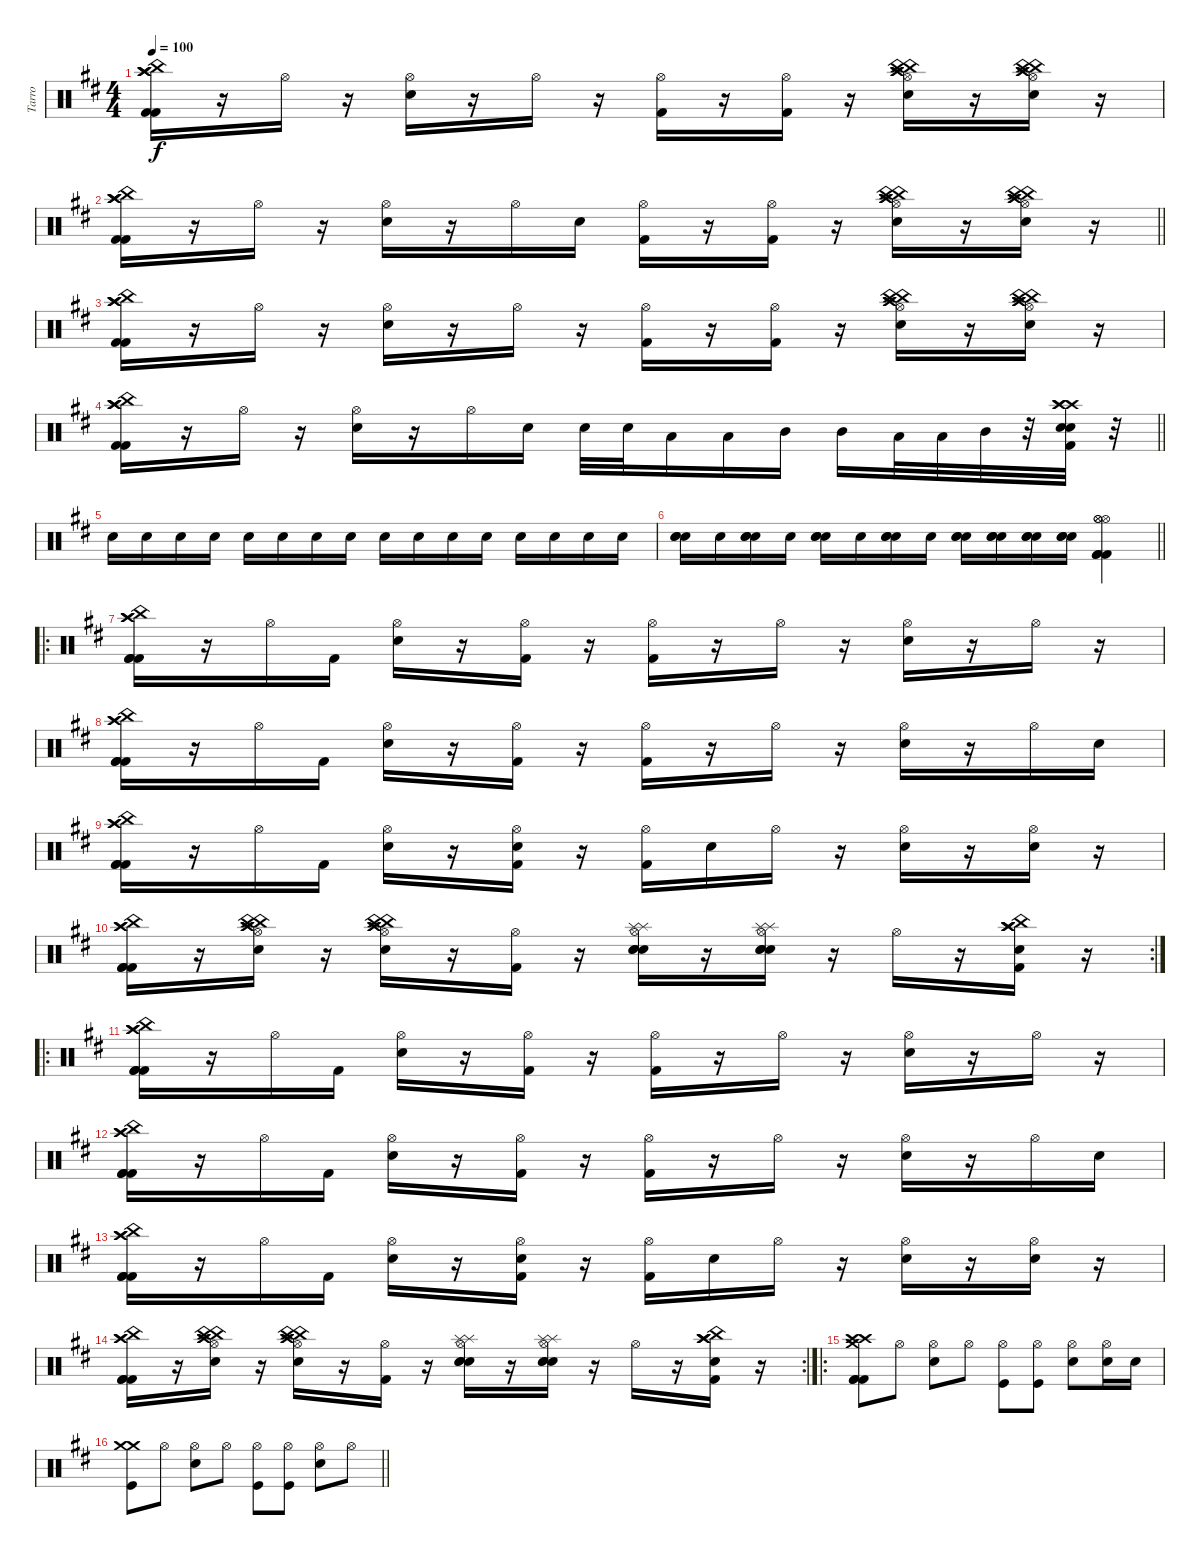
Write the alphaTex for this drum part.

\track ("Tarro" "Tarro") {instrument percussion}
\staff {score}
\articulation defaults
\ts (4 4)
\tempo 100
\clef neutral
\ks d
("Crash high (hit)" "China (hit)" "Crash high (hit)" "Crash high (hit)" "Kick (hit) 2" "Kick (hit) 2").16{dy f} r.16 "Hi-Hat (open)".16 r.16 ("Hi-Hat (open)" "Snare (hit) 2").16 r.16 "Hi-Hat (open)".16 r.16 ("Hi-Hat (open)" "Kick (hit) 2").16 r.16 ("Hi-Hat (open)" "Kick (hit) 2").16 r.16 ("Hi-Hat (open)" "Snare (hit) 2" "Crash high (hit)" "Crash high (hit)" "China (hit)" "China (hit)").16 r.16 ("Hi-Hat (open)" "Snare (hit) 2" "Crash high (hit)" "Crash high (hit)" "China (hit)" "China (hit)").16 r.16 |
\barLineRight lightlight
("Crash high (hit)" "China (hit)" "Crash high (hit)" "Crash high (hit)" "Kick (hit) 2" "Kick (hit) 2").16 r.16 "Hi-Hat (open)".16 r.16 ("Hi-Hat (open)" "Snare (hit) 2").16 r.16 "Hi-Hat (open)".16 "Snare (hit) 2".16 ("Hi-Hat (open)" "Kick (hit) 2").16 r.16 ("Hi-Hat (open)" "Kick (hit) 2").16 r.16 ("Hi-Hat (open)" "Snare (hit) 2" "Crash high (hit)" "Crash high (hit)" "China (hit)" "China (hit)").16 r.16 ("Hi-Hat (open)" "Snare (hit) 2" "Crash high (hit)" "Crash high (hit)" "China (hit)" "China (hit)").16 r.16 |
("Crash high (hit)" "China (hit)" "Crash high (hit)" "Crash high (hit)" "Kick (hit) 2" "Kick (hit) 2").16 r.16 "Hi-Hat (open)".16 r.16 ("Hi-Hat (open)" "Snare (hit) 2").16 r.16 "Hi-Hat (open)".16 r.16 ("Hi-Hat (open)" "Kick (hit) 2").16 r.16 ("Hi-Hat (open)" "Kick (hit) 2").16 r.16 ("Hi-Hat (open)" "Snare (hit) 2" "Crash high (hit)" "Crash high (hit)" "China (hit)" "China (hit)").16 r.16 ("Hi-Hat (open)" "Snare (hit) 2" "Crash high (hit)" "Crash high (hit)" "China (hit)" "China (hit)").16 r.16 |
\barLineRight lightlight
("Crash high (hit)" "China (hit)" "Crash high (hit)" "Crash high (hit)" "Kick (hit) 2" "Kick (hit) 2").16 r.16 "Hi-Hat (open)".16 r.16 ("Hi-Hat (open)" "Snare (hit) 2").16 r.16 "Hi-Hat (open)".16 "Snare (hit) 2".16 "Snare (hit) 2".32 "Snare (hit) 2".32 "Low Floor Tom (hit)".16 "Low Floor Tom (hit)".16 "Mid Tom (hit)".16 "Mid Tom (hit)".16 "Low Floor Tom (hit)".32 "Low Floor Tom (hit)".32 "Mid Tom (hit)".32 r.32 ("Snare (hit) 2" "Crash high (hit)" "Crash high (hit)" "Snare (hit) 2" "Kick (hit) 2" "Crash high (hit)").32 r.32 |
"Snare (hit) 2".16{balance 16} "Snare (hit) 2".16 "Snare (hit) 2".16 "Snare (hit) 2".16 "Snare (hit) 2".16 "Snare (hit) 2".16 "Snare (hit) 2".16 "Snare (hit) 2".16 "Snare (hit) 2".16 "Snare (hit) 2".16 "Snare (hit) 2".16 "Snare (hit) 2".16 "Snare (hit) 2".16 "Snare (hit) 2".16 "Snare (hit) 2".16 "Snare (hit) 2".16 |
\barLineRight lightlight
("Snare (hit) 2" "Snare (hit) 2" "Snare (hit) 2").16 "Snare (hit) 2".16 ("Snare (hit) 2" "Snare (hit) 2" "Snare (hit) 2").16 "Snare (hit) 2".16 ("Snare (hit) 2" "Snare (hit) 2" "Snare (hit) 2").16 "Snare (hit) 2".16 ("Snare (hit) 2" "Snare (hit) 2" "Snare (hit) 2").16 "Snare (hit) 2".16 ("Snare (hit) 2" "Snare (hit) 2" "Snare (hit) 2").16 ("Snare (hit) 2" "Snare (hit) 2" "Snare (hit) 2").16 ("Snare (hit) 2" "Snare (hit) 2" "Snare (hit) 2").16 ("Snare (hit) 2" "Snare (hit) 2" "Snare (hit) 2").16 ("Hi-Hat (open)" "Hi-Hat (open)" "Hi-Hat (open)" "Kick (hit) 2" "Kick (hit) 2" "Kick (hit) 2").4 |
\ro
("Crash high (hit)" "Crash high (hit)" "China (hit)" "Kick (hit) 2" "Kick (hit) 2" "Kick (hit) 2").16 r.16 "Hi-Hat (open)".16 "Kick (hit) 2".16 ("Hi-Hat (open)" "Snare (hit) 2").16 r.16 ("Hi-Hat (open)" "Kick (hit) 2").16 r.16 ("Hi-Hat (open)" "Kick (hit) 2").16 r.16 "Hi-Hat (open)".16 r.16 ("Hi-Hat (open)" "Snare (hit) 2").16 r.16 "Hi-Hat (open)".16 r.16 |
("Crash high (hit)" "Crash high (hit)" "China (hit)" "Kick (hit) 2" "Kick (hit) 2" "Kick (hit) 2").16 r.16 "Hi-Hat (open)".16 "Kick (hit) 2".16 ("Hi-Hat (open)" "Snare (hit) 2").16 r.16 ("Hi-Hat (open)" "Kick (hit) 2").16 r.16 ("Hi-Hat (open)" "Kick (hit) 2").16 r.16 "Hi-Hat (open)".16 r.16 ("Hi-Hat (open)" "Snare (hit) 2").16 r.16 "Hi-Hat (open)".16 "Snare (hit) 2".16 |
("Crash high (hit)" "Crash high (hit)" "China (hit)" "Kick (hit) 2" "Kick (hit) 2" "Kick (hit) 2").16 r.16 "Hi-Hat (open)".16 "Kick (hit) 2".16 ("Hi-Hat (open)" "Snare (hit) 2").16 r.16 ("Hi-Hat (open)" "Snare (hit) 2" "Kick (hit) 2").16 r.16 ("Hi-Hat (open)" "Kick (hit) 2").16 "Snare (hit) 2".16 "Hi-Hat (open)".16 r.16 ("Hi-Hat (open)" "Snare (hit) 2").16 r.16 ("Hi-Hat (open)" "Snare (hit) 2").16 r.16 |
\rc 2
("Crash high (hit)" "Crash high (hit)" "China (hit)" "Kick (hit) 2" "Kick (hit) 2" "Kick (hit) 2").16 r.16 ("Hi-Hat (open)" "Snare (hit) 2" "Crash high (hit)" "Crash high (hit)" "China (hit)" "China (hit)").16 r.16 ("Hi-Hat (open)" "Snare (hit) 2" "Crash high (hit)" "Crash high (hit)" "China (hit)" "China (hit)").16 r.16 ("Hi-Hat (open)" "Kick (hit) 2").16 r.16 ("Hi-Hat (open)" "Snare (hit) 2" "Snare (hit)" "Snare (hit)" "Splash (hit)" "Splash (hit)").16 r.16 ("Hi-Hat (open)" "Snare (hit) 2" "Snare (hit)" "Snare (hit)" "Splash (hit)" "Splash (hit)").16 r.16 "Hi-Hat (open)".16 r.16 ("Kick (hit) 2" "Snare (hit) 2" "Crash high (hit)" "Crash high (hit)" "China (hit)" "Crash high (hit)").16 r.16 |
\ro
("Crash high (hit)" "Crash high (hit)" "China (hit)" "Kick (hit) 2" "Kick (hit) 2" "Kick (hit) 2").16 r.16 "Hi-Hat (open)".16 "Kick (hit) 2".16 ("Hi-Hat (open)" "Snare (hit) 2").16 r.16 ("Hi-Hat (open)" "Kick (hit) 2").16 r.16 ("Hi-Hat (open)" "Kick (hit) 2").16 r.16 "Hi-Hat (open)".16 r.16 ("Hi-Hat (open)" "Snare (hit) 2").16 r.16 "Hi-Hat (open)".16 r.16 |
("Crash high (hit)" "Crash high (hit)" "China (hit)" "Kick (hit) 2" "Kick (hit) 2" "Kick (hit) 2").16 r.16 "Hi-Hat (open)".16 "Kick (hit) 2".16 ("Hi-Hat (open)" "Snare (hit) 2").16 r.16 ("Hi-Hat (open)" "Kick (hit) 2").16 r.16 ("Hi-Hat (open)" "Kick (hit) 2").16 r.16 "Hi-Hat (open)".16 r.16 ("Hi-Hat (open)" "Snare (hit) 2").16 r.16 "Hi-Hat (open)".16 "Snare (hit) 2".16 |
("Crash high (hit)" "Crash high (hit)" "China (hit)" "Kick (hit) 2" "Kick (hit) 2" "Kick (hit) 2").16 r.16 "Hi-Hat (open)".16 "Kick (hit) 2".16 ("Hi-Hat (open)" "Snare (hit) 2").16 r.16 ("Hi-Hat (open)" "Snare (hit) 2" "Kick (hit) 2").16 r.16 ("Hi-Hat (open)" "Kick (hit) 2").16 "Snare (hit) 2".16 "Hi-Hat (open)".16 r.16 ("Hi-Hat (open)" "Snare (hit) 2").16 r.16 ("Hi-Hat (open)" "Snare (hit) 2").16 r.16 |
\rc 2
("Crash high (hit)" "Crash high (hit)" "China (hit)" "Kick (hit) 2" "Kick (hit) 2" "Kick (hit) 2").16 r.16 ("Hi-Hat (open)" "Snare (hit) 2" "Crash high (hit)" "Crash high (hit)" "China (hit)" "China (hit)").16 r.16 ("Hi-Hat (open)" "Snare (hit) 2" "Crash high (hit)" "Crash high (hit)" "China (hit)" "China (hit)").16 r.16 ("Hi-Hat (open)" "Kick (hit) 2").16 r.16 ("Hi-Hat (open)" "Snare (hit) 2" "Snare (hit)" "Snare (hit)" "Splash (hit)" "Splash (hit)").16 r.16 ("Hi-Hat (open)" "Snare (hit) 2" "Snare (hit)" "Snare (hit)" "Splash (hit)" "Splash (hit)").16 r.16 "Hi-Hat (open)".16 r.16 ("Kick (hit) 2" "Snare (hit) 2" "Crash high (hit)" "Crash high (hit)" "China (hit)" "Crash high (hit)").16 r.16 |
\ro
("Crash medium (hit)" "Crash high (hit)" "Crash high (hit)" "Kick (hit) 2" "Kick (hit) 2" "Kick (hit) 2").8 "Hi-Hat (open)".8 ("Hi-Hat (open)" "Snare (hit) 2").8 "Hi-Hat (open)".8 ("Hi-Hat (open)" "Kick (hit)").8 ("Hi-Hat (open)" "Kick (hit)").8 ("Hi-Hat (open)" "Snare (hit) 2").8 ("Hi-Hat (open)" "Snare (hit) 2").16 "Snare (hit) 2".16 |
\barLineRight lightlight
("Crash medium (hit)" "Crash medium (hit)" "Kick (hit)").8 "Hi-Hat (open)".8 ("Hi-Hat (open)" "Snare (hit) 2").8 "Hi-Hat (open)".8 ("Hi-Hat (open)" "Kick (hit)").8 ("Hi-Hat (open)" "Kick (hit)").8 ("Hi-Hat (open)" "Snare (hit) 2").8 "Hi-Hat (open)".8
